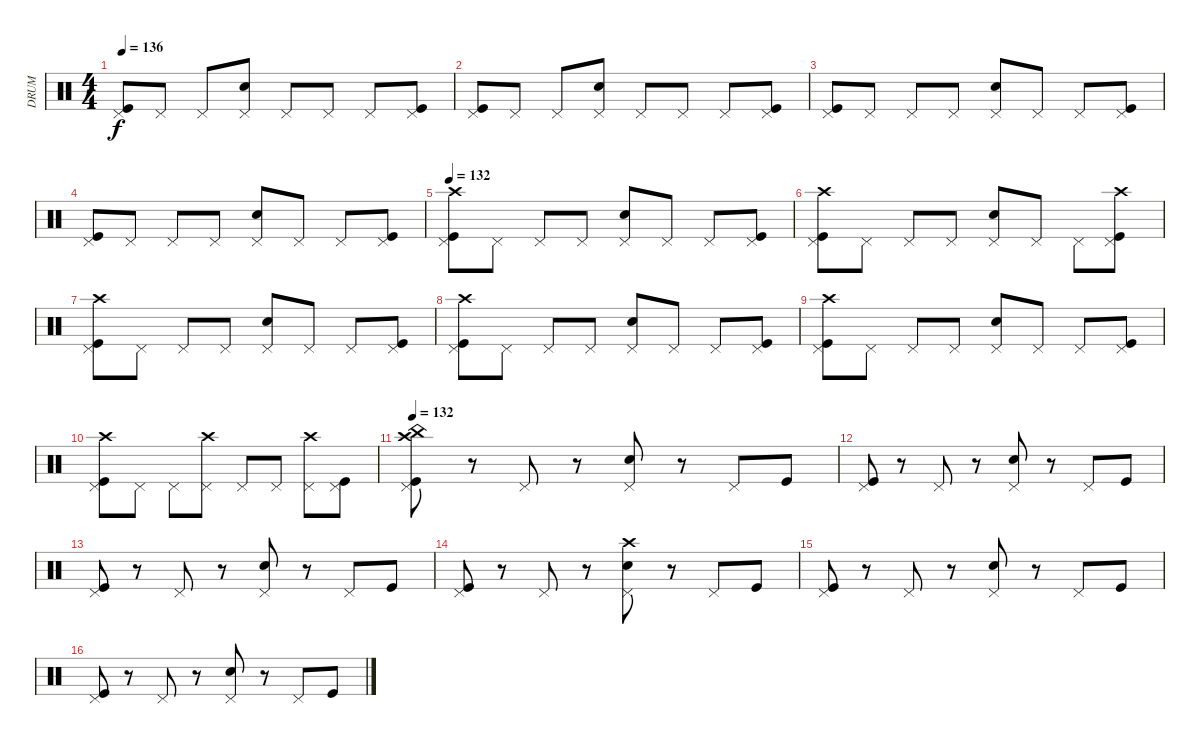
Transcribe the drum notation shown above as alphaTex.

\track ("DRUM" "DRUM") {instrument percussion}
\staff {score}
\articulation defaults
\ts (4 4)
\tempo 136
\clef neutral
\ks c
("Pedal Hi-Hat (hit)" "Kick (hit)").8{dy f} "Pedal Hi-Hat (hit)".8 "Pedal Hi-Hat (hit)".8 ("Pedal Hi-Hat (hit)" "Snare (hit) 2").8 "Pedal Hi-Hat (hit)".8 "Pedal Hi-Hat (hit)".8 "Pedal Hi-Hat (hit)".8 ("Pedal Hi-Hat (hit)" "Kick (hit)").8 |
("Pedal Hi-Hat (hit)" "Kick (hit)").8 "Pedal Hi-Hat (hit)".8 "Pedal Hi-Hat (hit)".8 ("Pedal Hi-Hat (hit)" "Snare (hit) 2").8 "Pedal Hi-Hat (hit)".8 "Pedal Hi-Hat (hit)".8 "Pedal Hi-Hat (hit)".8 ("Pedal Hi-Hat (hit)" "Kick (hit)").8 |
("Pedal Hi-Hat (hit)" "Kick (hit)").8 "Pedal Hi-Hat (hit)".8 "Pedal Hi-Hat (hit)".8 "Pedal Hi-Hat (hit)".8 ("Pedal Hi-Hat (hit)" "Snare (hit) 2").8 "Pedal Hi-Hat (hit)".8 "Pedal Hi-Hat (hit)".8 ("Pedal Hi-Hat (hit)" "Kick (hit)").8 |
("Pedal Hi-Hat (hit)" "Kick (hit)").8 "Pedal Hi-Hat (hit)".8 "Pedal Hi-Hat (hit)".8 "Pedal Hi-Hat (hit)".8 ("Pedal Hi-Hat (hit)" "Snare (hit) 2").8 "Pedal Hi-Hat (hit)".8 "Pedal Hi-Hat (hit)".8 ("Pedal Hi-Hat (hit)" "Kick (hit)").8 |
\tempo 132
("Pedal Hi-Hat (hit)" "Crash high (hit)" "Kick (hit)").8 "Pedal Hi-Hat (hit)".8 "Pedal Hi-Hat (hit)".8 "Pedal Hi-Hat (hit)".8 ("Pedal Hi-Hat (hit)" "Snare (hit) 2").8 "Pedal Hi-Hat (hit)".8 "Pedal Hi-Hat (hit)".8 ("Pedal Hi-Hat (hit)" "Kick (hit)").8 |
("Pedal Hi-Hat (hit)" "Crash high (hit)" "Kick (hit)").8 "Pedal Hi-Hat (hit)".8 "Pedal Hi-Hat (hit)".8 "Pedal Hi-Hat (hit)".8 ("Pedal Hi-Hat (hit)" "Snare (hit) 2").8 "Pedal Hi-Hat (hit)".8 "Pedal Hi-Hat (hit)".8 ("Pedal Hi-Hat (hit)" "Crash high (hit)" "Kick (hit)").8 |
("Pedal Hi-Hat (hit)" "Crash high (hit)" "Kick (hit)").8 "Pedal Hi-Hat (hit)".8 "Pedal Hi-Hat (hit)".8 "Pedal Hi-Hat (hit)".8 ("Pedal Hi-Hat (hit)" "Snare (hit) 2").8 "Pedal Hi-Hat (hit)".8 "Pedal Hi-Hat (hit)".8 ("Pedal Hi-Hat (hit)" "Kick (hit)").8 |
("Pedal Hi-Hat (hit)" "Crash high (hit)" "Kick (hit)").8 "Pedal Hi-Hat (hit)".8 "Pedal Hi-Hat (hit)".8 "Pedal Hi-Hat (hit)".8 ("Pedal Hi-Hat (hit)" "Snare (hit) 2").8 "Pedal Hi-Hat (hit)".8 "Pedal Hi-Hat (hit)".8 ("Pedal Hi-Hat (hit)" "Kick (hit)").8 |
("Pedal Hi-Hat (hit)" "Crash high (hit)" "Kick (hit)").8 "Pedal Hi-Hat (hit)".8 "Pedal Hi-Hat (hit)".8 "Pedal Hi-Hat (hit)".8 ("Pedal Hi-Hat (hit)" "Snare (hit) 2").8 "Pedal Hi-Hat (hit)".8 "Pedal Hi-Hat (hit)".8 ("Pedal Hi-Hat (hit)" "Kick (hit)").8 |
("Pedal Hi-Hat (hit)" "Crash high (hit)" "Kick (hit)").8 "Pedal Hi-Hat (hit)".8 "Pedal Hi-Hat (hit)".8 ("Pedal Hi-Hat (hit)" "Crash high (hit)").8 "Pedal Hi-Hat (hit)".8 "Pedal Hi-Hat (hit)".8 ("Pedal Hi-Hat (hit)" "Crash high (hit)").8 ("Pedal Hi-Hat (hit)" "Kick (hit)").8 |
\tempo 132
("Pedal Hi-Hat (hit)" "Crash high (hit)" "China (hit)" "Kick (hit)").8 r.8 "Pedal Hi-Hat (hit)".8 r.8 ("Pedal Hi-Hat (hit)" "Snare (hit) 2").8 r.8 "Pedal Hi-Hat (hit)".8 "Kick (hit)".8 |
("Pedal Hi-Hat (hit)" "Kick (hit)").8 r.8 "Pedal Hi-Hat (hit)".8 r.8 ("Pedal Hi-Hat (hit)" "Snare (hit) 2").8 r.8 "Pedal Hi-Hat (hit)".8 "Kick (hit)".8 |
("Pedal Hi-Hat (hit)" "Kick (hit)").8 r.8 "Pedal Hi-Hat (hit)".8 r.8 ("Pedal Hi-Hat (hit)" "Snare (hit) 2").8 r.8 "Pedal Hi-Hat (hit)".8 "Kick (hit)".8 |
("Pedal Hi-Hat (hit)" "Kick (hit)").8 r.8 "Pedal Hi-Hat (hit)".8 r.8 ("Pedal Hi-Hat (hit)" "Snare (hit) 2" "Crash high (hit)").8 r.8 "Pedal Hi-Hat (hit)".8 "Kick (hit)".8 |
("Pedal Hi-Hat (hit)" "Kick (hit)").8 r.8 "Pedal Hi-Hat (hit)".8 r.8 ("Pedal Hi-Hat (hit)" "Snare (hit) 2").8 r.8 "Pedal Hi-Hat (hit)".8 "Kick (hit)".8 |
("Pedal Hi-Hat (hit)" "Kick (hit)").8 r.8 "Pedal Hi-Hat (hit)".8 r.8 ("Pedal Hi-Hat (hit)" "Snare (hit) 2").8 r.8 "Pedal Hi-Hat (hit)".8 "Kick (hit)".8
